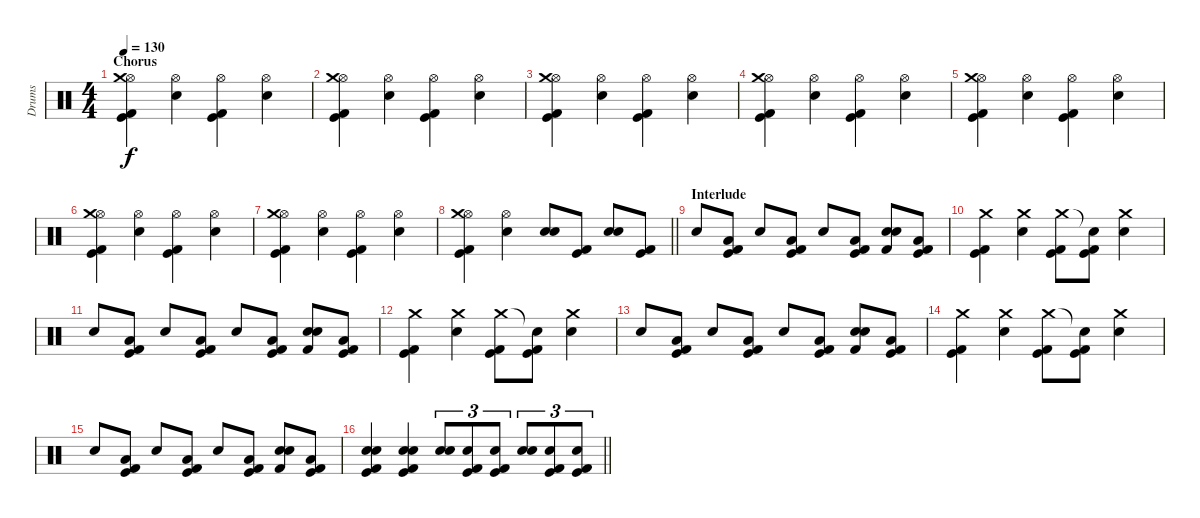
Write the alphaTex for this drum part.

\track ("Drums" "Drums") {instrument percussion}
\staff {score}
\articulation defaults
\ts (4 4)
\section ("" "Chorus")
\tempo 130
\clef neutral
\ks c
("Hi-Hat (open)" "Crash medium (hit)" "Kick (hit)" "Kick (hit) 2").4{dy f} ("Hi-Hat (open)" "Electric Snare (hit)").4 ("Hi-Hat (open)" "Kick (hit)" "Kick (hit) 2").4 ("Hi-Hat (open)" "Electric Snare (hit)").4 |
("Hi-Hat (open)" "Crash medium (hit)" "Kick (hit)" "Kick (hit) 2").4 ("Hi-Hat (open)" "Electric Snare (hit)").4 ("Hi-Hat (open)" "Kick (hit)" "Kick (hit) 2").4 ("Hi-Hat (open)" "Electric Snare (hit)").4 |
("Hi-Hat (open)" "Crash medium (hit)" "Kick (hit)" "Kick (hit) 2").4 ("Hi-Hat (open)" "Electric Snare (hit)").4 ("Hi-Hat (open)" "Kick (hit)" "Kick (hit) 2").4 ("Hi-Hat (open)" "Electric Snare (hit)").4 |
("Hi-Hat (open)" "Crash medium (hit)" "Kick (hit)" "Kick (hit) 2").4 ("Hi-Hat (open)" "Electric Snare (hit)").4 ("Hi-Hat (open)" "Kick (hit)" "Kick (hit) 2").4 ("Hi-Hat (open)" "Electric Snare (hit)").4 |
("Hi-Hat (open)" "Crash medium (hit)" "Kick (hit)" "Kick (hit) 2").4 ("Hi-Hat (open)" "Electric Snare (hit)").4 ("Hi-Hat (open)" "Kick (hit)" "Kick (hit) 2").4 ("Hi-Hat (open)" "Electric Snare (hit)").4 |
("Hi-Hat (open)" "Crash medium (hit)" "Kick (hit)" "Kick (hit) 2").4 ("Hi-Hat (open)" "Electric Snare (hit)").4 ("Hi-Hat (open)" "Kick (hit)" "Kick (hit) 2").4 ("Hi-Hat (open)" "Electric Snare (hit)").4 |
("Hi-Hat (open)" "Crash medium (hit)" "Kick (hit)" "Kick (hit) 2").4 ("Hi-Hat (open)" "Electric Snare (hit)").4 ("Hi-Hat (open)" "Kick (hit)" "Kick (hit) 2").4 ("Hi-Hat (open)" "Electric Snare (hit)").4 |
\barLineRight lightlight
("Hi-Hat (open)" "Crash medium (hit)" "Kick (hit)" "Kick (hit) 2").4 ("Hi-Hat (open)" "Electric Snare (hit)").4 ("Electric Snare (hit)" "Snare (hit) 2").8{bd 120} ("Kick (hit)" "Kick (hit) 2").8 ("Electric Snare (hit)" "Snare (hit) 2").8{bd 120} ("Kick (hit)" "Kick (hit) 2").8 |
\section ("" "Interlude")
"Snare (hit) 2".8 ("Low Floor Tom (hit)" "Kick (hit)" "Kick (hit) 2").8 "Snare (hit) 2".8 ("Low Floor Tom (hit)" "Kick (hit)" "Kick (hit) 2").8 "Snare (hit) 2".8 ("Low Floor Tom (hit)" "Kick (hit)" "Kick (hit) 2").8 ("Electric Snare (hit)" "Snare (hit) 2" "Kick (hit) 2").8 ("Low Floor Tom (hit)" "Kick (hit)" "Kick (hit) 2").8 |
("Crash medium (hit)" "Kick (hit)" "Kick (hit) 2").4 ("Crash medium (hit)" "Snare (hit) 2").4 ("Crash medium (hit)" "Kick (hit)" "Kick (hit) 2").8 ("Snare (hit)"{t} "Kick (hit)" "Kick (hit) 2").8 ("Crash medium (hit)" "Snare (hit) 2").4 |
"Snare (hit) 2".8 ("Low Floor Tom (hit)" "Kick (hit)" "Kick (hit) 2").8 "Snare (hit) 2".8 ("Low Floor Tom (hit)" "Kick (hit)" "Kick (hit) 2").8 "Snare (hit) 2".8 ("Low Floor Tom (hit)" "Kick (hit)" "Kick (hit) 2").8 ("Electric Snare (hit)" "Snare (hit) 2" "Kick (hit) 2").8 ("Low Floor Tom (hit)" "Kick (hit)" "Kick (hit) 2").8 |
("Crash medium (hit)" "Kick (hit)" "Kick (hit) 2").4 ("Crash medium (hit)" "Snare (hit) 2").4 ("Crash medium (hit)" "Kick (hit)" "Kick (hit) 2").8 ("Snare (hit)"{t} "Kick (hit)" "Kick (hit) 2").8 ("Crash medium (hit)" "Snare (hit) 2").4 |
"Snare (hit) 2".8 ("Low Floor Tom (hit)" "Kick (hit)" "Kick (hit) 2").8 "Snare (hit) 2".8 ("Low Floor Tom (hit)" "Kick (hit)" "Kick (hit) 2").8 "Snare (hit) 2".8 ("Low Floor Tom (hit)" "Kick (hit)" "Kick (hit) 2").8 ("Electric Snare (hit)" "Snare (hit) 2" "Kick (hit) 2").8 ("Low Floor Tom (hit)" "Kick (hit)" "Kick (hit) 2").8 |
("Crash medium (hit)" "Kick (hit)" "Kick (hit) 2").4 ("Crash medium (hit)" "Snare (hit) 2").4 ("Crash medium (hit)" "Kick (hit)" "Kick (hit) 2").8 ("Snare (hit)"{t} "Kick (hit)" "Kick (hit) 2").8 ("Crash medium (hit)" "Snare (hit) 2").4 |
"Snare (hit) 2".8 ("Low Floor Tom (hit)" "Kick (hit)" "Kick (hit) 2").8 "Snare (hit) 2".8 ("Low Floor Tom (hit)" "Kick (hit)" "Kick (hit) 2").8 "Snare (hit) 2".8 ("Low Floor Tom (hit)" "Kick (hit)" "Kick (hit) 2").8 ("Electric Snare (hit)" "Snare (hit) 2" "Kick (hit) 2").8 ("Low Floor Tom (hit)" "Kick (hit)" "Kick (hit) 2").8 |
\barLineRight lightlight
("Electric Snare (hit)" "Snare (hit) 2" "Kick (hit)" "Kick (hit) 2").4 ("Electric Snare (hit)" "Snare (hit) 2" "Kick (hit)" "Kick (hit) 2").4 ("Electric Snare (hit)" "Snare (hit) 2").8{tu (3 2)} ("Snare (hit) 2" "Kick (hit)" "Kick (hit) 2").8{tu (3 2)} ("Electric Snare (hit)" "Kick (hit)" "Kick (hit) 2").8{tu (3 2)} ("Electric Snare (hit)" "Snare (hit) 2").8{tu (3 2)} ("Snare (hit) 2" "Kick (hit)" "Kick (hit) 2").8{tu (3 2)} ("Electric Snare (hit)" "Kick (hit)" "Kick (hit) 2").8{tu (3 2)}
